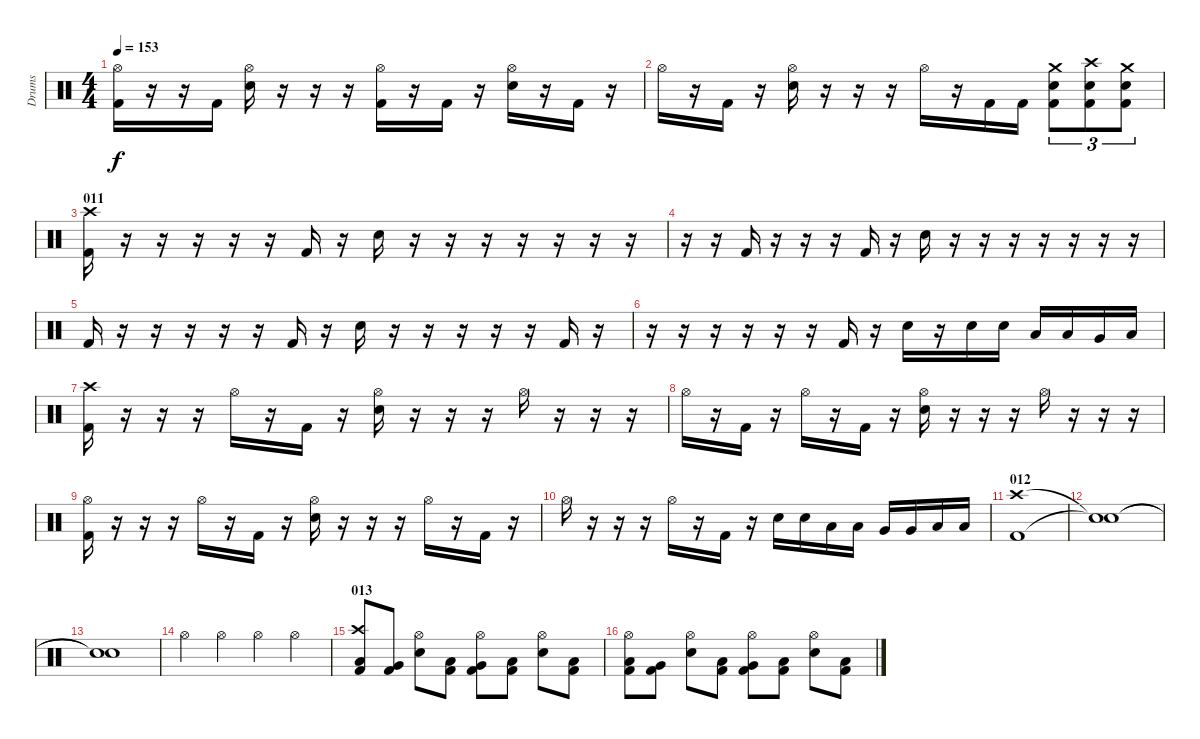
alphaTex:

\track ("Drums" "Drums") {instrument percussion}
\staff {score}
\articulation defaults
\ts (4 4)
\tempo 153
\clef neutral
\ks c
("Hi-Hat (open)" "Kick (hit) 2").16{dy f} r.16 r.16 "Kick (hit) 2".16 ("Hi-Hat (open)" "Electric Snare (hit)").16 r.16 r.16 r.16 ("Hi-Hat (open)" "Kick (hit) 2").16 r.16 "Kick (hit) 2".16 r.16 ("Hi-Hat (open)" "Electric Snare (hit)").16 r.16 "Kick (hit) 2".16 r.16 |
"Hi-Hat (open)".16 r.16 "Kick (hit) 2".16 r.16 ("Hi-Hat (open)" "Electric Snare (hit)").16 r.16 r.16 r.16 "Hi-Hat (open)".16 r.16 "Kick (hit) 2".16 "Kick (hit) 2".16 ("Crash medium (hit)" "Kick (hit) 2" "Electric Snare (hit)").8{tu (3 2)} ("Crash high (hit)" "Kick (hit) 2" "Electric Snare (hit)").8{tu (3 2)} ("Crash medium (hit)" "Kick (hit) 2" "Electric Snare (hit)").8{tu (3 2)} |
\section ("" "011")
("Kick (hit) 2" "Crash high (hit)").16 r.16 r.16 r.16 r.16 r.16 "Kick (hit) 2".16 r.16 "Electric Snare (hit)".16 r.16 r.16 r.16 r.16 r.16 r.16 r.16 |
r.16 r.16 "Kick (hit) 2".16 r.16 r.16 r.16 "Kick (hit) 2".16 r.16 "Electric Snare (hit)".16 r.16 r.16 r.16 r.16 r.16 r.16 r.16 |
"Kick (hit) 2".16 r.16 r.16 r.16 r.16 r.16 "Kick (hit) 2".16 r.16 "Electric Snare (hit)".16 r.16 r.16 r.16 r.16 r.16 "Kick (hit) 2".16 r.16 |
r.16 r.16 r.16 r.16 r.16 r.16 "Kick (hit) 2".16 r.16 "Electric Snare (hit)".16 r.16 "Electric Snare (hit)".16 "Electric Snare (hit)".16 "Low Tom (hit)".16 "Low Tom (hit)".16 "Very Low Tom (hit)".16 "Low Floor Tom (hit)".16 |
("Kick (hit) 2" "Crash high (hit)").16 r.16 r.16 r.16 "Hi-Hat (open)".16 r.16 "Kick (hit) 2".16 r.16 ("Electric Snare (hit)" "Hi-Hat (open)").16 r.16 r.16 r.16 "Hi-Hat (open)".16 r.16 r.16 r.16 |
"Hi-Hat (open)".16 r.16 "Kick (hit) 2".16 r.16 "Hi-Hat (open)".16 r.16 "Kick (hit) 2".16 r.16 ("Electric Snare (hit)" "Hi-Hat (open)").16 r.16 r.16 r.16 "Hi-Hat (open)".16 r.16 r.16 r.16 |
("Kick (hit) 2" "Hi-Hat (open)").16 r.16 r.16 r.16 "Hi-Hat (open)".16 r.16 "Kick (hit) 2".16 r.16 ("Electric Snare (hit)" "Hi-Hat (open)").16 r.16 r.16 r.16 "Hi-Hat (open)".16 r.16 "Kick (hit) 2".16 r.16 |
"Hi-Hat (open)".16 r.16 r.16 r.16 "Hi-Hat (open)".16 r.16 "Kick (hit) 2".16 r.16 "Electric Snare (hit)".16 "Electric Snare (hit)".16 "Low Tom (hit)".16 "Low Tom (hit)".16 "Very Low Tom (hit)".16 "Very Low Tom (hit)".16 "Low Floor Tom (hit)".16 "Low Floor Tom (hit)".16 |
\section ("" "012")
("Crash high (hit)" "Kick (hit) 2").1 |
("Snare (hit)"{t} "Snare (hit)"{t}).1 |
("Snare (hit)"{t} "Snare (hit)"{t}).1 |
"Hi-Hat (open)".4 "Hi-Hat (open)".4 "Hi-Hat (open)".4 "Hi-Hat (open)".4 |
\section ("" "013")
("Kick (hit) 2" "Low Tom (hit)" "Crash high (hit)").8 ("Kick (hit) 2" "Very Low Tom (hit)").8 ("Electric Snare (hit)" "Hi-Hat (open)").8 ("Kick (hit) 2" "Low Tom (hit)").8 ("Kick (hit) 2" "Very Low Tom (hit)" "Hi-Hat (open)").8 ("Kick (hit) 2" "Low Tom (hit)").8 ("Electric Snare (hit)" "Hi-Hat (open)").8 ("Kick (hit) 2" "Low Tom (hit)").8 |
("Kick (hit) 2" "Low Tom (hit)" "Hi-Hat (open)").8 ("Kick (hit) 2" "Very Low Tom (hit)").8 ("Electric Snare (hit)" "Hi-Hat (open)").8 ("Kick (hit) 2" "Low Tom (hit)").8 ("Kick (hit) 2" "Very Low Tom (hit)" "Hi-Hat (open)").8 ("Kick (hit) 2" "Low Tom (hit)").8 ("Electric Snare (hit)" "Hi-Hat (open)").8 ("Kick (hit) 2" "Low Tom (hit)").8
